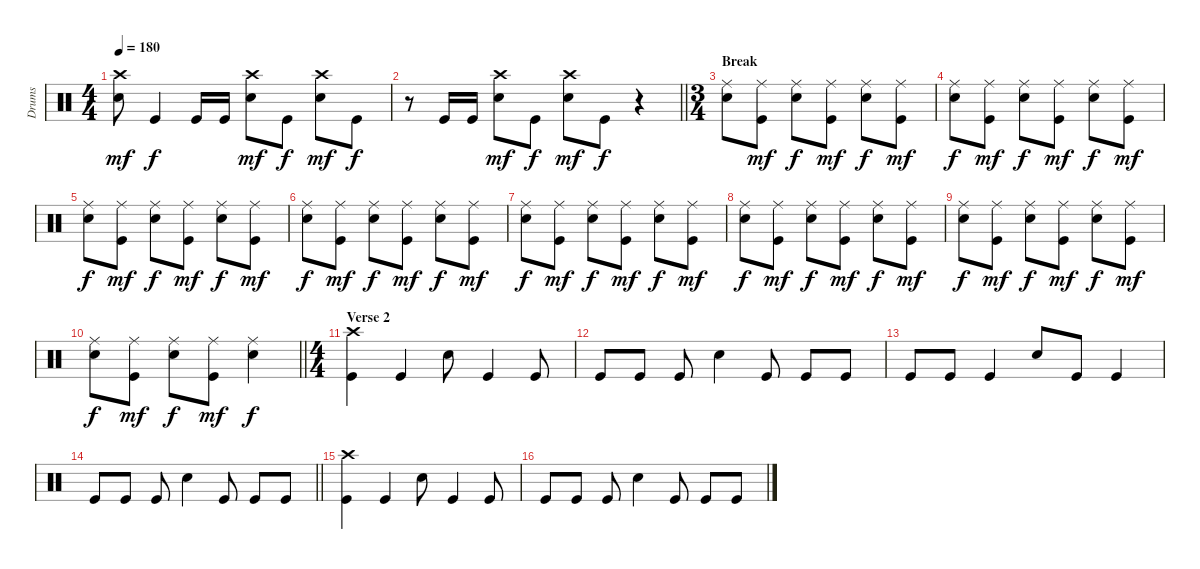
\track ("Drums" "Drums") {instrument percussion}
\staff {score}
\articulation defaults
\ts (4 4)
\tempo 180
\clef neutral
\ks c
("Crash high (hit)" "Snare (hit) 2").8{dy mf} "Kick (hit)".4{dy f} "Kick (hit)".16 "Kick (hit)".16 ("Crash high (hit)" "Snare (hit) 2").8{dy mf} "Kick (hit)".8{dy f} ("Crash high (hit)" "Snare (hit) 2").8{dy mf} "Kick (hit)".8{dy f} |
\barLineRight lightlight
r.8 "Kick (hit)".16 "Kick (hit)".16 ("Crash high (hit)" "Snare (hit) 2").8{dy mf} "Kick (hit)".8{dy f} ("Crash high (hit)" "Snare (hit) 2").8{dy mf} "Kick (hit)".8{dy f} r.4 |
\ts (3 4)
\section ("" "Break")
("Ride (middle)" "Snare (hit) 2").8 ("Ride (middle)" "Kick (hit)").8{dy mf} ("Ride (middle)" "Snare (hit) 2").8{dy f} ("Ride (middle)" "Kick (hit)").8{dy mf} ("Ride (middle)" "Snare (hit) 2").8{dy f} ("Ride (middle)" "Kick (hit)").8{dy mf} |
("Ride (middle)" "Snare (hit) 2").8{dy f} ("Ride (middle)" "Kick (hit)").8{dy mf} ("Ride (middle)" "Snare (hit) 2").8{dy f} ("Ride (middle)" "Kick (hit)").8{dy mf} ("Ride (middle)" "Snare (hit) 2").8{dy f} ("Ride (middle)" "Kick (hit)").8{dy mf} |
("Ride (middle)" "Snare (hit) 2").8{dy f} ("Ride (middle)" "Kick (hit)").8{dy mf} ("Ride (middle)" "Snare (hit) 2").8{dy f} ("Ride (middle)" "Kick (hit)").8{dy mf} ("Ride (middle)" "Snare (hit) 2").8{dy f} ("Ride (middle)" "Kick (hit)").8{dy mf} |
("Ride (middle)" "Snare (hit) 2").8{dy f} ("Ride (middle)" "Kick (hit)").8{dy mf} ("Ride (middle)" "Snare (hit) 2").8{dy f} ("Ride (middle)" "Kick (hit)").8{dy mf} ("Ride (middle)" "Snare (hit) 2").8{dy f} ("Ride (middle)" "Kick (hit)").8{dy mf} |
("Ride (middle)" "Snare (hit) 2").8{dy f} ("Ride (middle)" "Kick (hit)").8{dy mf} ("Ride (middle)" "Snare (hit) 2").8{dy f} ("Ride (middle)" "Kick (hit)").8{dy mf} ("Ride (middle)" "Snare (hit) 2").8{dy f} ("Ride (middle)" "Kick (hit)").8{dy mf} |
("Ride (middle)" "Snare (hit) 2").8{dy f} ("Ride (middle)" "Kick (hit)").8{dy mf} ("Ride (middle)" "Snare (hit) 2").8{dy f} ("Ride (middle)" "Kick (hit)").8{dy mf} ("Ride (middle)" "Snare (hit) 2").8{dy f} ("Ride (middle)" "Kick (hit)").8{dy mf} |
("Ride (middle)" "Snare (hit) 2").8{dy f} ("Ride (middle)" "Kick (hit)").8{dy mf} ("Ride (middle)" "Snare (hit) 2").8{dy f} ("Ride (middle)" "Kick (hit)").8{dy mf} ("Ride (middle)" "Snare (hit) 2").8{dy f} ("Ride (middle)" "Kick (hit)").8{dy mf} |
\barLineRight lightlight
("Ride (middle)" "Snare (hit) 2").8{dy f} ("Ride (middle)" "Kick (hit)").8{dy mf} ("Ride (middle)" "Snare (hit) 2").8{dy f} ("Ride (middle)" "Kick (hit)").8{dy mf} ("Ride (middle)" "Snare (hit) 2").4{dy f} |
\ts (4 4)
\section ("" "Verse 2")
("Crash high (hit)" "Kick (hit)").4 "Kick (hit)".4 "Snare (hit) 2".8 "Kick (hit)".4 "Kick (hit)".8 |
"Kick (hit)".8 "Kick (hit)".8 "Kick (hit)".8 "Snare (hit) 2".4 "Kick (hit)".8 "Kick (hit)".8 "Kick (hit)".8 |
"Kick (hit)".8 "Kick (hit)".8 "Kick (hit)".4 "Snare (hit) 2".8 "Kick (hit)".8 "Kick (hit)".4 |
\barLineRight lightlight "Kick (hit)".8 "Kick (hit)".8 "Kick (hit)".8 "Snare (hit) 2".4 "Kick (hit)".8 "Kick (hit)".8 "Kick (hit)".8
|
("Crash high (hit)" "Kick (hit)").4 "Kick (hit)".4 "Snare (hit) 2".8 "Kick (hit)".4 "Kick (hit)".8 |
"Kick (hit)".8 "Kick (hit)".8 "Kick (hit)".8 "Snare (hit) 2".4 "Kick (hit)".8 "Kick (hit)".8 "Kick (hit)".8
